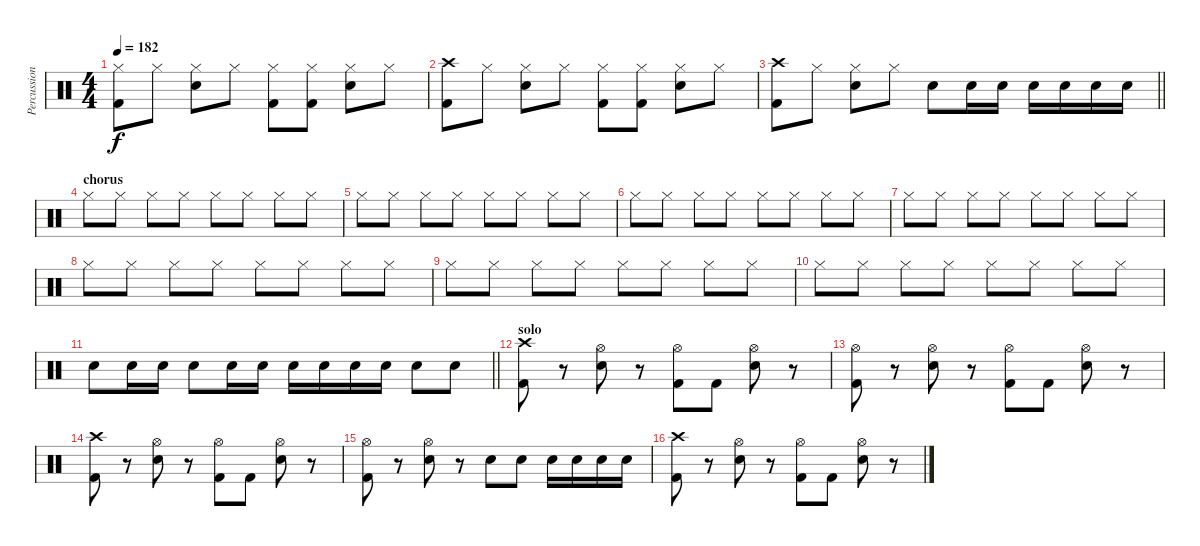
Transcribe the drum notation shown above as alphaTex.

\track ("Percussion" "Percussion") {instrument percussion}
\staff {score}
\articulation defaults
\ts (4 4)
\tempo 182
\clef neutral
\ks c
("Hi-Hat (closed)" "Kick (hit) 2").8{dy f} "Hi-Hat (closed)".8 ("Hi-Hat (closed)" "Snare (hit) 2").8 "Hi-Hat (closed)".8 ("Hi-Hat (closed)" "Kick (hit) 2").8 ("Hi-Hat (closed)" "Kick (hit) 2").8 ("Hi-Hat (closed)" "Snare (hit) 2").8 "Hi-Hat (closed)".8 |
("Crash high (hit)" "Kick (hit) 2").8 "Hi-Hat (closed)".8 ("Hi-Hat (closed)" "Snare (hit) 2").8 "Hi-Hat (closed)".8 ("Hi-Hat (closed)" "Kick (hit) 2").8 ("Hi-Hat (closed)" "Kick (hit) 2").8 ("Hi-Hat (closed)" "Snare (hit) 2").8 "Hi-Hat (closed)".8 |
\barLineRight lightlight
("Crash high (hit)" "Kick (hit) 2").8 "Hi-Hat (closed)".8 ("Hi-Hat (closed)" "Snare (hit) 2").8 "Hi-Hat (closed)".8 "Snare (hit) 2".8 "Snare (hit) 2".16 "Snare (hit) 2".16 "Snare (hit) 2".16 "Snare (hit) 2".16 "Snare (hit) 2".16 "Snare (hit) 2".16 |
\section ("" "chorus")
"Hi-Hat (closed)".8 "Hi-Hat (closed)".8 "Hi-Hat (closed)".8 "Hi-Hat (closed)".8 "Hi-Hat (closed)".8 "Hi-Hat (closed)".8 "Hi-Hat (closed)".8 "Hi-Hat (closed)".8 |
"Hi-Hat (closed)".8 "Hi-Hat (closed)".8 "Hi-Hat (closed)".8 "Hi-Hat (closed)".8 "Hi-Hat (closed)".8 "Hi-Hat (closed)".8 "Hi-Hat (closed)".8 "Hi-Hat (closed)".8 |
"Hi-Hat (closed)".8 "Hi-Hat (closed)".8 "Hi-Hat (closed)".8 "Hi-Hat (closed)".8 "Hi-Hat (closed)".8 "Hi-Hat (closed)".8 "Hi-Hat (closed)".8 "Hi-Hat (closed)".8 |
"Hi-Hat (closed)".8 "Hi-Hat (closed)".8 "Hi-Hat (closed)".8 "Hi-Hat (closed)".8 "Hi-Hat (closed)".8 "Hi-Hat (closed)".8 "Hi-Hat (closed)".8 "Hi-Hat (closed)".8 |
"Hi-Hat (closed)".8 "Hi-Hat (closed)".8 "Hi-Hat (closed)".8 "Hi-Hat (closed)".8 "Hi-Hat (closed)".8 "Hi-Hat (closed)".8 "Hi-Hat (closed)".8 "Hi-Hat (closed)".8 |
"Hi-Hat (closed)".8 "Hi-Hat (closed)".8 "Hi-Hat (closed)".8 "Hi-Hat (closed)".8 "Hi-Hat (closed)".8 "Hi-Hat (closed)".8 "Hi-Hat (closed)".8 "Hi-Hat (closed)".8 |
"Hi-Hat (closed)".8 "Hi-Hat (closed)".8 "Hi-Hat (closed)".8 "Hi-Hat (closed)".8 "Hi-Hat (closed)".8 "Hi-Hat (closed)".8 "Hi-Hat (closed)".8 "Hi-Hat (closed)".8 |
\barLineRight lightlight "Snare (hit) 2".8 "Snare (hit) 2".16 "Snare (hit) 2".16 "Snare (hit) 2".8 "Snare (hit) 2".16 "Snare (hit) 2".16 "Snare (hit) 2".16 "Snare (hit) 2".16 "Snare (hit) 2".16 "Snare (hit) 2".16 "Snare (hit) 2".8 "Snare (hit) 2".8
|
\section ("" "solo")
("Crash high (hit)" "Kick (hit) 2").8 r.8 ("Hi-Hat (open)" "Snare (hit) 2").8 r.8 ("Hi-Hat (open)" "Kick (hit) 2").8 "Kick (hit) 2".8 ("Hi-Hat (open)" "Snare (hit) 2").8 r.8 |
("Hi-Hat (open)" "Kick (hit) 2").8 r.8 ("Hi-Hat (open)" "Snare (hit) 2").8 r.8 ("Hi-Hat (open)" "Kick (hit) 2").8 "Kick (hit) 2".8 ("Hi-Hat (open)" "Snare (hit) 2").8 r.8 |
("Crash high (hit)" "Kick (hit) 2").8 r.8 ("Hi-Hat (open)" "Snare (hit) 2").8 r.8 ("Hi-Hat (open)" "Kick (hit) 2").8 "Kick (hit) 2".8 ("Hi-Hat (open)" "Snare (hit) 2").8 r.8 |
("Hi-Hat (open)" "Kick (hit) 2").8 r.8 ("Hi-Hat (open)" "Snare (hit) 2").8 r.8 "Snare (hit) 2".8 "Snare (hit) 2".8 "Snare (hit) 2".16 "Snare (hit) 2".16 "Snare (hit) 2".16 "Snare (hit) 2".16 |
("Crash high (hit)" "Kick (hit) 2").8 r.8 ("Hi-Hat (open)" "Snare (hit) 2").8 r.8 ("Hi-Hat (open)" "Kick (hit) 2").8 "Kick (hit) 2".8 ("Hi-Hat (open)" "Snare (hit) 2").8 r.8
